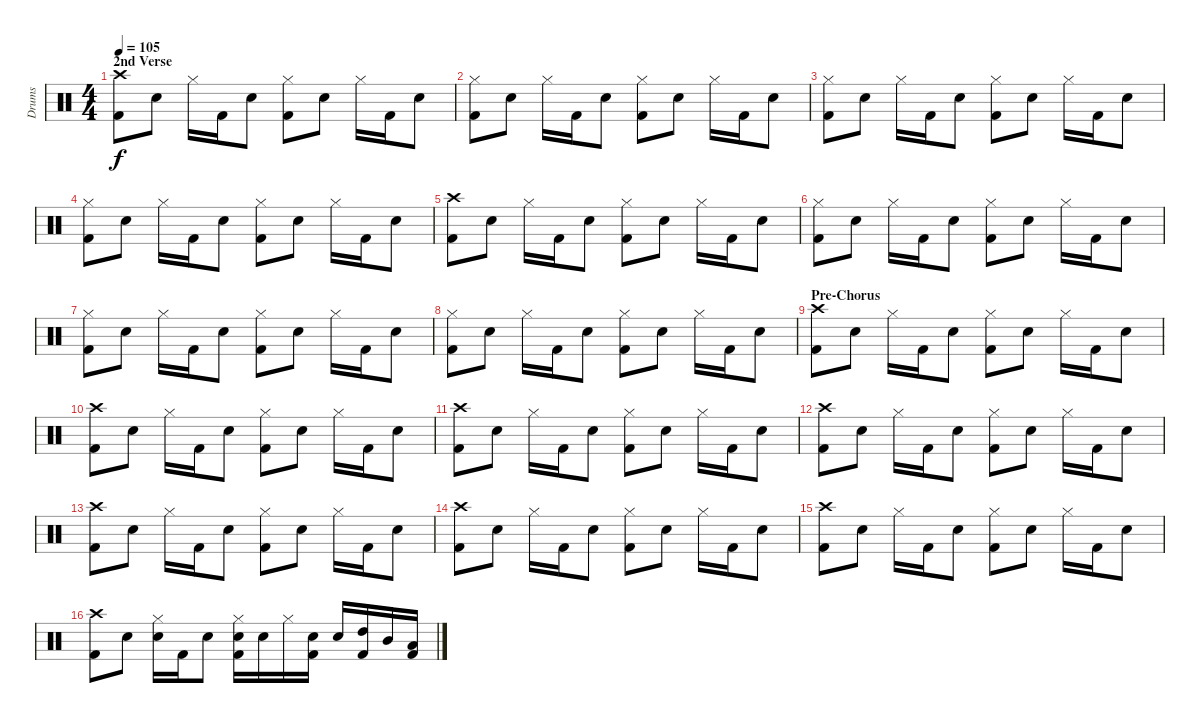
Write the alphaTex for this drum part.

\track ("Drums" "Drums") {instrument percussion}
\staff {score}
\articulation defaults
\ts (4 4)
\section ("" "2nd Verse")
\tempo 105
\clef neutral
\ks c
("Crash high (hit)" "Kick (hit) 2").8{dy f} "Snare (hit) 2".8 "Hi-Hat (closed)".16 "Kick (hit) 2".16 "Snare (hit) 2".8 ("Hi-Hat (closed)" "Kick (hit) 2").8 "Snare (hit) 2".8 "Hi-Hat (closed)".16 "Kick (hit) 2".16 "Snare (hit) 2".8 |
("Hi-Hat (closed)" "Kick (hit) 2").8 "Snare (hit) 2".8 "Hi-Hat (closed)".16 "Kick (hit) 2".16 "Snare (hit) 2".8 ("Hi-Hat (closed)" "Kick (hit) 2").8 "Snare (hit) 2".8 "Hi-Hat (closed)".16 "Kick (hit) 2".16 "Snare (hit) 2".8 |
("Hi-Hat (closed)" "Kick (hit) 2").8 "Snare (hit) 2".8 "Hi-Hat (closed)".16 "Kick (hit) 2".16 "Snare (hit) 2".8 ("Hi-Hat (closed)" "Kick (hit) 2").8 "Snare (hit) 2".8 "Hi-Hat (closed)".16 "Kick (hit) 2".16 "Snare (hit) 2".8 |
("Hi-Hat (closed)" "Kick (hit) 2").8 "Snare (hit) 2".8 "Hi-Hat (closed)".16 "Kick (hit) 2".16 "Snare (hit) 2".8 ("Hi-Hat (closed)" "Kick (hit) 2").8 "Snare (hit) 2".8 "Hi-Hat (closed)".16 "Kick (hit) 2".16 "Snare (hit) 2".8 |
("Crash high (hit)" "Kick (hit) 2").8 "Snare (hit) 2".8 "Hi-Hat (closed)".16 "Kick (hit) 2".16 "Snare (hit) 2".8 ("Hi-Hat (closed)" "Kick (hit) 2").8 "Snare (hit) 2".8 "Hi-Hat (closed)".16 "Kick (hit) 2".16 "Snare (hit) 2".8 |
("Hi-Hat (closed)" "Kick (hit) 2").8 "Snare (hit) 2".8 "Hi-Hat (closed)".16 "Kick (hit) 2".16 "Snare (hit) 2".8 ("Hi-Hat (closed)" "Kick (hit) 2").8 "Snare (hit) 2".8 "Hi-Hat (closed)".16 "Kick (hit) 2".16 "Snare (hit) 2".8 |
("Hi-Hat (closed)" "Kick (hit) 2").8 "Snare (hit) 2".8 "Hi-Hat (closed)".16 "Kick (hit) 2".16 "Snare (hit) 2".8 ("Hi-Hat (closed)" "Kick (hit) 2").8 "Snare (hit) 2".8 "Hi-Hat (closed)".16 "Kick (hit) 2".16 "Snare (hit) 2".8 |
("Hi-Hat (closed)" "Kick (hit) 2").8 "Snare (hit) 2".8 "Hi-Hat (closed)".16 "Kick (hit) 2".16 "Snare (hit) 2".8 ("Hi-Hat (closed)" "Kick (hit) 2").8 "Snare (hit) 2".8 "Hi-Hat (closed)".16 "Kick (hit) 2".16 "Snare (hit) 2".8 |
\section ("" "Pre-Chorus")
("Crash high (hit)" "Kick (hit) 2").8 "Snare (hit) 2".8 "Hi-Hat (closed)".16 "Kick (hit) 2".16 "Snare (hit) 2".8 ("Hi-Hat (closed)" "Kick (hit) 2").8 "Snare (hit) 2".8 "Hi-Hat (closed)".16 "Kick (hit) 2".16 "Snare (hit) 2".8 |
("Crash high (hit)" "Kick (hit) 2").8 "Snare (hit) 2".8 "Hi-Hat (closed)".16 "Kick (hit) 2".16 "Snare (hit) 2".8 ("Hi-Hat (closed)" "Kick (hit) 2").8 "Snare (hit) 2".8 "Hi-Hat (closed)".16 "Kick (hit) 2".16 "Snare (hit) 2".8 |
("Crash high (hit)" "Kick (hit) 2").8 "Snare (hit) 2".8 "Hi-Hat (closed)".16 "Kick (hit) 2".16 "Snare (hit) 2".8 ("Hi-Hat (closed)" "Kick (hit) 2").8 "Snare (hit) 2".8 "Hi-Hat (closed)".16 "Kick (hit) 2".16 "Snare (hit) 2".8 |
("Crash high (hit)" "Kick (hit) 2").8 "Snare (hit) 2".8 "Hi-Hat (closed)".16 "Kick (hit) 2".16 "Snare (hit) 2".8 ("Hi-Hat (closed)" "Kick (hit) 2").8 "Snare (hit) 2".8 "Hi-Hat (closed)".16 "Kick (hit) 2".16 "Snare (hit) 2".8 |
("Crash high (hit)" "Kick (hit) 2").8 "Snare (hit) 2".8 "Hi-Hat (closed)".16 "Kick (hit) 2".16 "Snare (hit) 2".8 ("Hi-Hat (closed)" "Kick (hit) 2").8 "Snare (hit) 2".8 "Hi-Hat (closed)".16 "Kick (hit) 2".16 "Snare (hit) 2".8 |
("Crash high (hit)" "Kick (hit) 2").8 "Snare (hit) 2".8 "Hi-Hat (closed)".16 "Kick (hit) 2".16 "Snare (hit) 2".8 ("Hi-Hat (closed)" "Kick (hit) 2").8 "Snare (hit) 2".8 "Hi-Hat (closed)".16 "Kick (hit) 2".16 "Snare (hit) 2".8 |
("Crash high (hit)" "Kick (hit) 2").8 "Snare (hit) 2".8 "Hi-Hat (closed)".16 "Kick (hit) 2".16 "Snare (hit) 2".8 ("Hi-Hat (closed)" "Kick (hit) 2").8 "Snare (hit) 2".8 "Hi-Hat (closed)".16 "Kick (hit) 2".16 "Snare (hit) 2".8 |
("Crash high (hit)" "Kick (hit) 2").8 "Snare (hit) 2".8 ("Hi-Hat (closed)" "Snare (hit) 2").16 "Kick (hit) 2".16 "Snare (hit) 2".8 ("Hi-Hat (closed)" "Snare (hit) 2" "Kick (hit) 2").16 "Snare (hit) 2".16 "Hi-Hat (closed)".16 ("Snare (hit) 2" "Kick (hit) 2").16 "Snare (hit) 2".16 ("High Tom (hit)" "Kick (hit) 2").16 "Mid Tom (hit)".16 ("Low Tom (hit)" "Kick (hit) 2").16
